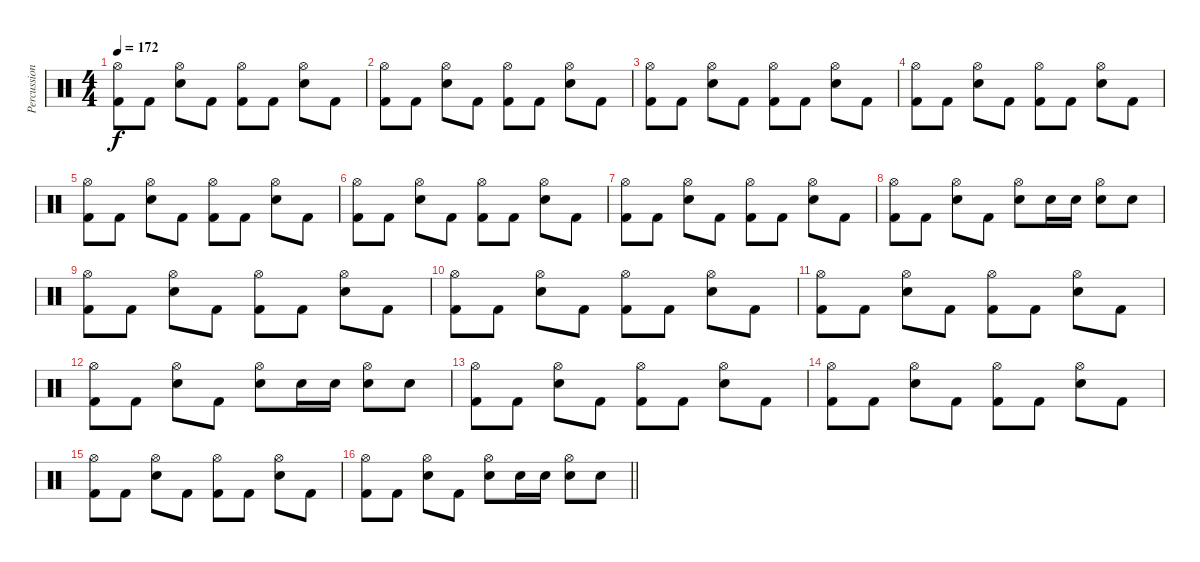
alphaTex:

\track ("Percussion" "Percussion") {instrument percussion}
\staff {score}
\articulation defaults
\ts (4 4)
\tempo 172
\clef neutral
\ks c
("Hi-Hat (open)" "Kick (hit) 2").8{dy f} "Kick (hit) 2".8 ("Hi-Hat (open)" "Electric Snare (hit)").8 "Kick (hit) 2".8 ("Hi-Hat (open)" "Kick (hit) 2").8 "Kick (hit) 2".8 ("Hi-Hat (open)" "Electric Snare (hit)").8 "Kick (hit) 2".8 |
("Hi-Hat (open)" "Kick (hit) 2").8 "Kick (hit) 2".8 ("Hi-Hat (open)" "Electric Snare (hit)").8 "Kick (hit) 2".8 ("Hi-Hat (open)" "Kick (hit) 2").8 "Kick (hit) 2".8 ("Hi-Hat (open)" "Electric Snare (hit)").8 "Kick (hit) 2".8 |
("Hi-Hat (open)" "Kick (hit) 2").8 "Kick (hit) 2".8 ("Hi-Hat (open)" "Electric Snare (hit)").8 "Kick (hit) 2".8 ("Hi-Hat (open)" "Kick (hit) 2").8 "Kick (hit) 2".8 ("Hi-Hat (open)" "Electric Snare (hit)").8 "Kick (hit) 2".8 |
("Hi-Hat (open)" "Kick (hit) 2").8 "Kick (hit) 2".8 ("Hi-Hat (open)" "Electric Snare (hit)").8 "Kick (hit) 2".8 ("Hi-Hat (open)" "Kick (hit) 2").8 "Kick (hit) 2".8 ("Hi-Hat (open)" "Electric Snare (hit)").8 "Kick (hit) 2".8 |
("Hi-Hat (open)" "Kick (hit) 2").8 "Kick (hit) 2".8 ("Hi-Hat (open)" "Electric Snare (hit)").8 "Kick (hit) 2".8 ("Hi-Hat (open)" "Kick (hit) 2").8 "Kick (hit) 2".8 ("Hi-Hat (open)" "Electric Snare (hit)").8 "Kick (hit) 2".8 |
("Hi-Hat (open)" "Kick (hit) 2").8 "Kick (hit) 2".8 ("Hi-Hat (open)" "Electric Snare (hit)").8 "Kick (hit) 2".8 ("Hi-Hat (open)" "Kick (hit) 2").8 "Kick (hit) 2".8 ("Hi-Hat (open)" "Electric Snare (hit)").8 "Kick (hit) 2".8 |
("Hi-Hat (open)" "Kick (hit) 2").8 "Kick (hit) 2".8 ("Hi-Hat (open)" "Electric Snare (hit)").8 "Kick (hit) 2".8 ("Hi-Hat (open)" "Kick (hit) 2").8 "Kick (hit) 2".8 ("Hi-Hat (open)" "Electric Snare (hit)").8 "Kick (hit) 2".8 |
("Hi-Hat (open)" "Kick (hit) 2").8 "Kick (hit) 2".8 ("Hi-Hat (open)" "Electric Snare (hit)").8 "Kick (hit) 2".8 ("Hi-Hat (open)" "Electric Snare (hit)").8 "Electric Snare (hit)".16 "Electric Snare (hit)".16 ("Hi-Hat (open)" "Electric Snare (hit)").8 "Electric Snare (hit)".8 |
("Hi-Hat (open)" "Kick (hit) 2").8 "Kick (hit) 2".8 ("Hi-Hat (open)" "Electric Snare (hit)").8 "Kick (hit) 2".8 ("Hi-Hat (open)" "Kick (hit) 2").8 "Kick (hit) 2".8 ("Hi-Hat (open)" "Electric Snare (hit)").8 "Kick (hit) 2".8 |
("Hi-Hat (open)" "Kick (hit) 2").8 "Kick (hit) 2".8 ("Hi-Hat (open)" "Electric Snare (hit)").8 "Kick (hit) 2".8 ("Hi-Hat (open)" "Kick (hit) 2").8 "Kick (hit) 2".8 ("Hi-Hat (open)" "Electric Snare (hit)").8 "Kick (hit) 2".8 |
("Hi-Hat (open)" "Kick (hit) 2").8 "Kick (hit) 2".8 ("Hi-Hat (open)" "Electric Snare (hit)").8 "Kick (hit) 2".8 ("Hi-Hat (open)" "Kick (hit) 2").8 "Kick (hit) 2".8 ("Hi-Hat (open)" "Electric Snare (hit)").8 "Kick (hit) 2".8 |
("Hi-Hat (open)" "Kick (hit) 2").8 "Kick (hit) 2".8 ("Hi-Hat (open)" "Electric Snare (hit)").8 "Kick (hit) 2".8 ("Hi-Hat (open)" "Electric Snare (hit)").8 "Electric Snare (hit)".16 "Electric Snare (hit)".16 ("Hi-Hat (open)" "Electric Snare (hit)").8 "Electric Snare (hit)".8 |
("Hi-Hat (open)" "Kick (hit) 2").8 "Kick (hit) 2".8 ("Hi-Hat (open)" "Electric Snare (hit)").8 "Kick (hit) 2".8 ("Hi-Hat (open)" "Kick (hit) 2").8 "Kick (hit) 2".8 ("Hi-Hat (open)" "Electric Snare (hit)").8 "Kick (hit) 2".8 |
("Hi-Hat (open)" "Kick (hit) 2").8 "Kick (hit) 2".8 ("Hi-Hat (open)" "Electric Snare (hit)").8 "Kick (hit) 2".8 ("Hi-Hat (open)" "Kick (hit) 2").8 "Kick (hit) 2".8 ("Hi-Hat (open)" "Electric Snare (hit)").8 "Kick (hit) 2".8 |
("Hi-Hat (open)" "Kick (hit) 2").8 "Kick (hit) 2".8 ("Hi-Hat (open)" "Electric Snare (hit)").8 "Kick (hit) 2".8 ("Hi-Hat (open)" "Kick (hit) 2").8 "Kick (hit) 2".8 ("Hi-Hat (open)" "Electric Snare (hit)").8 "Kick (hit) 2".8 |
\barLineRight lightlight
("Hi-Hat (open)" "Kick (hit) 2").8 "Kick (hit) 2".8 ("Hi-Hat (open)" "Electric Snare (hit)").8 "Kick (hit) 2".8 ("Hi-Hat (open)" "Electric Snare (hit)").8 "Electric Snare (hit)".16 "Electric Snare (hit)".16 ("Hi-Hat (open)" "Electric Snare (hit)").8 "Electric Snare (hit)".8
